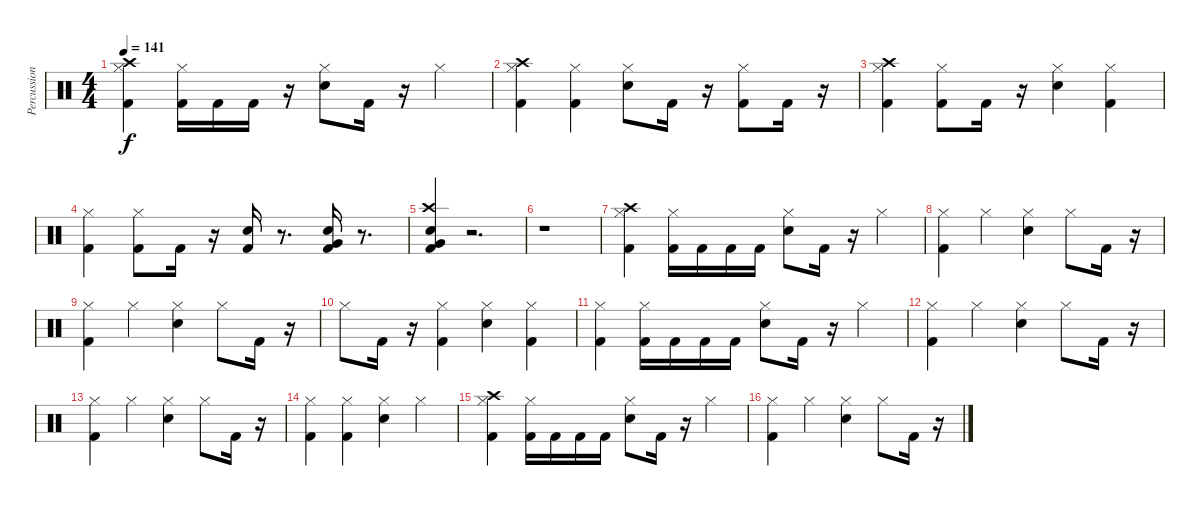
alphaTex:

\track ("Percussion" "Percussion") {instrument percussion}
\staff {score}
\articulation defaults
\ts (4 4)
\tempo 141
\clef neutral
\ks c
("Kick (hit) 2" "Hi-Hat (closed)" "Crash high (hit)").4{dy f} ("Kick (hit) 2" "Hi-Hat (closed)").16 "Kick (hit) 2".16 "Kick (hit) 2".16 r.16 ("Snare (hit) 2" "Hi-Hat (closed)").8 "Kick (hit) 2".16 r.16 "Hi-Hat (closed)".4 |
("Kick (hit) 2" "Hi-Hat (closed)" "Crash high (hit)").4 ("Kick (hit) 2" "Hi-Hat (closed)").4 ("Snare (hit) 2" "Hi-Hat (closed)").8 "Kick (hit) 2".16 r.16 ("Kick (hit) 2" "Hi-Hat (closed)").8 "Kick (hit) 2".16 r.16 |
("Kick (hit) 2" "Hi-Hat (closed)" "Crash high (hit)").4 ("Kick (hit) 2" "Hi-Hat (closed)").8 "Kick (hit) 2".16 r.16 ("Snare (hit) 2" "Hi-Hat (closed)").4 ("Kick (hit) 2" "Hi-Hat (closed)").4 |
("Kick (hit) 2" "Hi-Hat (closed)").4 ("Kick (hit) 2" "Hi-Hat (closed)").8 "Kick (hit) 2".16 r.16 ("Kick (hit) 2" "Snare (hit) 2").16 r.8{d} ("Kick (hit) 2" "Snare (hit) 2" "Very Low Tom (hit)").16 r.8{d} |
("Kick (hit) 2" "Snare (hit) 2" "Very Low Tom (hit)" "Crash high (hit)").4 r.2{d} |
r.1 |
("Kick (hit) 2" "Hi-Hat (closed)" "Crash high (hit)").4 ("Kick (hit) 2" "Hi-Hat (closed)").16 "Kick (hit) 2".16 "Kick (hit) 2".16 "Kick (hit) 2".16 ("Snare (hit) 2" "Hi-Hat (closed)").8 "Kick (hit) 2".16 r.16 "Hi-Hat (closed)".4 |
("Kick (hit) 2" "Hi-Hat (closed)").4 "Hi-Hat (closed)".4 ("Snare (hit) 2" "Hi-Hat (closed)").4 "Hi-Hat (closed)".8 "Kick (hit) 2".16 r.16 |
("Kick (hit) 2" "Hi-Hat (closed)").4 "Hi-Hat (closed)".4 ("Snare (hit) 2" "Hi-Hat (closed)").4 "Hi-Hat (closed)".8 "Kick (hit) 2".16 r.16 |
"Hi-Hat (closed)".8 "Kick (hit) 2".16 r.16 ("Kick (hit) 2" "Hi-Hat (closed)").4 ("Snare (hit) 2" "Hi-Hat (closed)").4 ("Kick (hit) 2" "Hi-Hat (closed)").4 |
("Kick (hit) 2" "Hi-Hat (closed)").4 ("Kick (hit) 2" "Hi-Hat (closed)").16 "Kick (hit) 2".16 "Kick (hit) 2".16 "Kick (hit) 2".16 ("Snare (hit) 2" "Hi-Hat (closed)").8 "Kick (hit) 2".16 r.16 "Hi-Hat (closed)".4 |
("Kick (hit) 2" "Hi-Hat (closed)").4 "Hi-Hat (closed)".4 ("Snare (hit) 2" "Hi-Hat (closed)").4 "Hi-Hat (closed)".8 "Kick (hit) 2".16 r.16 |
("Kick (hit) 2" "Hi-Hat (closed)").4 "Hi-Hat (closed)".4 ("Snare (hit) 2" "Hi-Hat (closed)").4 "Hi-Hat (closed)".8 "Kick (hit) 2".16 r.16 |
("Kick (hit) 2" "Hi-Hat (closed)").4 ("Kick (hit) 2" "Hi-Hat (closed)").4 ("Snare (hit) 2" "Hi-Hat (closed)").4 "Hi-Hat (closed)".4 |
("Kick (hit) 2" "Hi-Hat (closed)" "Crash high (hit)").4 ("Kick (hit) 2" "Hi-Hat (closed)").16 "Kick (hit) 2".16 "Kick (hit) 2".16 "Kick (hit) 2".16 ("Snare (hit) 2" "Hi-Hat (closed)").8 "Kick (hit) 2".16 r.16 "Hi-Hat (closed)".4 |
("Kick (hit) 2" "Hi-Hat (closed)").4 "Hi-Hat (closed)".4 ("Snare (hit) 2" "Hi-Hat (closed)").4 "Hi-Hat (closed)".8 "Kick (hit) 2".16 r.16
